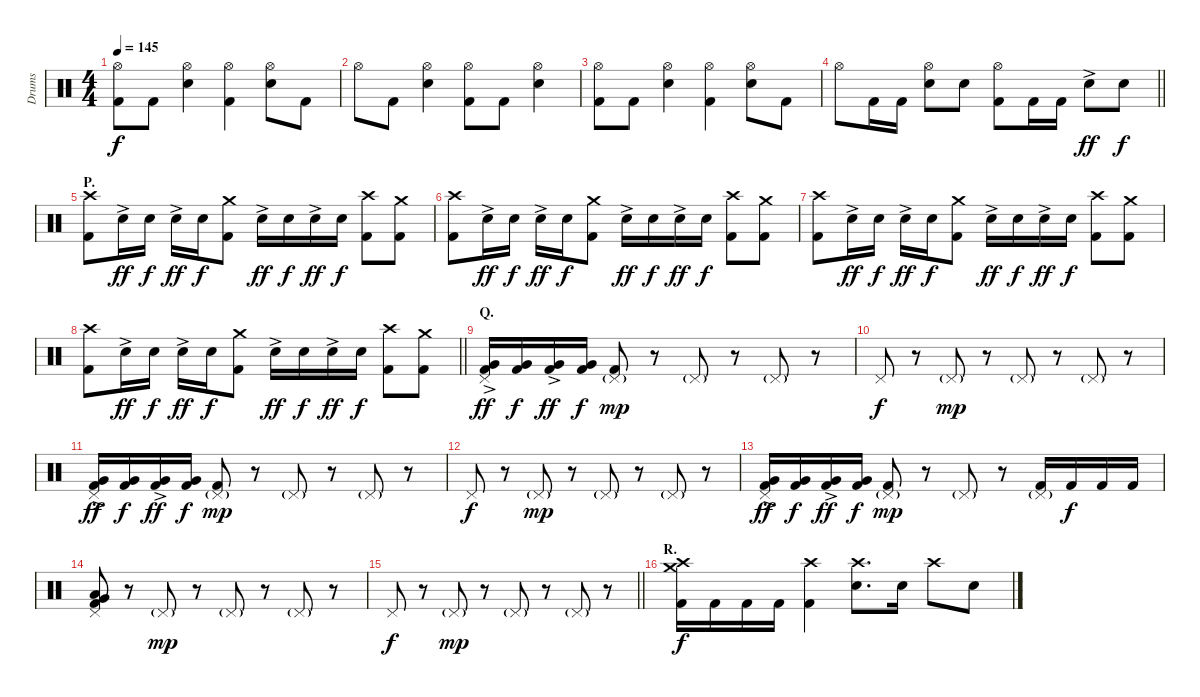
\track ("Drums" "Drums") {instrument percussion}
\staff {score}
\articulation defaults
\ts (4 4)
\tempo 145
\clef neutral
\ks c
("Hi-Hat (open)" "Kick (hit) 2").8{dy f} "Kick (hit) 2".8 ("Hi-Hat (open)" "Electric Snare (hit)").4 ("Hi-Hat (open)" "Kick (hit) 2").4 ("Hi-Hat (open)" "Electric Snare (hit)").8 "Kick (hit) 2".8 |
"Hi-Hat (open)".8 "Kick (hit) 2".8 ("Hi-Hat (open)" "Electric Snare (hit)").4 ("Hi-Hat (open)" "Kick (hit) 2").8 "Kick (hit) 2".8 ("Hi-Hat (open)" "Electric Snare (hit)").4 |
("Hi-Hat (open)" "Kick (hit) 2").8 "Kick (hit) 2".8 ("Hi-Hat (open)" "Electric Snare (hit)").4 ("Hi-Hat (open)" "Kick (hit) 2").4 ("Hi-Hat (open)" "Electric Snare (hit)").8 "Kick (hit) 2".8 |
\barLineRight lightlight "Hi-Hat (open)".8 "Kick (hit) 2".16 "Kick (hit) 2".16
("Hi-Hat (open)" "Electric Snare (hit)").8 "Electric Snare (hit)".8 ("Hi-Hat (open)" "Kick (hit) 2").8 "Kick (hit) 2".16 "Kick (hit) 2".16 "Electric Snare (hit)"{ac}.8{dy ff} "Electric Snare (hit)".8{dy f} |
\section ("" "P.")
("Crash high (hit)" "Kick (hit) 2").8 "Electric Snare (hit)"{ac}.16{dy ff} "Electric Snare (hit)".16{dy f} "Electric Snare (hit)"{ac}.16{dy ff} "Electric Snare (hit)".16{dy f} ("Crash medium (hit)" "Kick (hit) 2").8 "Electric Snare (hit)"{ac}.16{dy ff} "Electric Snare (hit)".16{dy f} "Electric Snare (hit)"{ac}.16{dy ff} "Electric Snare (hit)".16{dy f} ("Crash high (hit)" "Kick (hit) 2").8 ("Crash medium (hit)" "Kick (hit) 2").8 |
("Crash high (hit)" "Kick (hit) 2").8 "Electric Snare (hit)"{ac}.16{dy ff} "Electric Snare (hit)".16{dy f} "Electric Snare (hit)"{ac}.16{dy ff} "Electric Snare (hit)".16{dy f} ("Crash medium (hit)" "Kick (hit) 2").8 "Electric Snare (hit)"{ac}.16{dy ff} "Electric Snare (hit)".16{dy f} "Electric Snare (hit)"{ac}.16{dy ff} "Electric Snare (hit)".16{dy f} ("Crash high (hit)" "Kick (hit) 2").8 ("Crash medium (hit)" "Kick (hit) 2").8 |
("Crash high (hit)" "Kick (hit) 2").8 "Electric Snare (hit)"{ac}.16{dy ff} "Electric Snare (hit)".16{dy f} "Electric Snare (hit)"{ac}.16{dy ff} "Electric Snare (hit)".16{dy f} ("Crash medium (hit)" "Kick (hit) 2").8 "Electric Snare (hit)"{ac}.16{dy ff} "Electric Snare (hit)".16{dy f} "Electric Snare (hit)"{ac}.16{dy ff} "Electric Snare (hit)".16{dy f} ("Crash high (hit)" "Kick (hit) 2").8 ("Crash medium (hit)" "Kick (hit) 2").8 |
\barLineRight lightlight
("Crash high (hit)" "Kick (hit) 2").8 "Electric Snare (hit)"{ac}.16{dy ff} "Electric Snare (hit)".16{dy f} "Electric Snare (hit)"{ac}.16{dy ff} "Electric Snare (hit)".16{dy f} ("Crash medium (hit)" "Kick (hit) 2").8 "Electric Snare (hit)"{ac}.16{dy ff} "Electric Snare (hit)".16{dy f} "Electric Snare (hit)"{ac}.16{dy ff} "Electric Snare (hit)".16{dy f} ("Crash high (hit)" "Kick (hit) 2").8 ("Crash medium (hit)" "Kick (hit) 2").8 |
\section ("" "Q.")
("Pedal Hi-Hat (hit)" "Very Low Tom (hit)"{ac} "Kick (hit) 2").16{dy ff} ("Very Low Tom (hit)" "Kick (hit) 2").16{dy f} ("Very Low Tom (hit)"{ac} "Kick (hit) 2").16{dy ff} ("Very Low Tom (hit)" "Kick (hit) 2").16{dy f} ("Pedal Hi-Hat (hit)"{g} "Kick (hit) 2").8{dy mp} r.8 "Pedal Hi-Hat (hit)"{g}.8 r.8 "Pedal Hi-Hat (hit)"{g}.8 r.8 |
"Pedal Hi-Hat (hit)".8{dy f} r.8 "Pedal Hi-Hat (hit)"{g}.8{dy mp} r.8 "Pedal Hi-Hat (hit)"{g}.8 r.8 "Pedal Hi-Hat (hit)"{g}.8 r.8 |
("Pedal Hi-Hat (hit)" "Very Low Tom (hit)"{ac} "Kick (hit) 2").16{dy ff} ("Very Low Tom (hit)" "Kick (hit) 2").16{dy f} ("Very Low Tom (hit)"{ac} "Kick (hit) 2").16{dy ff} ("Very Low Tom (hit)" "Kick (hit) 2").16{dy f} ("Pedal Hi-Hat (hit)"{g} "Kick (hit) 2").8{dy mp} r.8 "Pedal Hi-Hat (hit)"{g}.8 r.8 "Pedal Hi-Hat (hit)"{g}.8 r.8 |
"Pedal Hi-Hat (hit)".8{dy f} r.8 "Pedal Hi-Hat (hit)"{g}.8{dy mp} r.8 "Pedal Hi-Hat (hit)"{g}.8 r.8 "Pedal Hi-Hat (hit)"{g}.8 r.8 |
("Pedal Hi-Hat (hit)" "Very Low Tom (hit)"{ac} "Kick (hit) 2").16{dy ff} ("Very Low Tom (hit)" "Kick (hit) 2").16{dy f} ("Very Low Tom (hit)"{ac} "Kick (hit) 2").16{dy ff} ("Very Low Tom (hit)" "Kick (hit) 2").16{dy f} ("Pedal Hi-Hat (hit)"{g} "Kick (hit) 2").8{dy mp} r.8 "Pedal Hi-Hat (hit)"{g}.8 r.8 ("Pedal Hi-Hat (hit)"{g} "Kick (hit) 2").16 "Kick (hit) 2".16{dy f} "Kick (hit) 2".16 "Kick (hit) 2".16 |
("Pedal Hi-Hat (hit)" "Very Low Tom (hit)" "Low Floor Tom (hit)" "Kick (hit) 2").8 r.8 "Pedal Hi-Hat (hit)"{g}.8{dy mp} r.8 "Pedal Hi-Hat (hit)"{g}.8 r.8 "Pedal Hi-Hat (hit)"{g}.8 r.8 |
\barLineRight lightlight "Pedal Hi-Hat (hit)".8{dy f}
r.8 "Pedal Hi-Hat (hit)"{g}.8{dy mp} r.8 "Pedal Hi-Hat (hit)"{g}.8 r.8 "Pedal Hi-Hat (hit)"{g}.8 r.8 |
\section ("" "R.")
("Crash medium (hit)" "Crash high (hit)" "Kick (hit) 2").16{dy f} "Kick (hit) 2".16 "Kick (hit) 2".16 "Kick (hit) 2".16 ("Crash high (hit)" "Kick (hit) 2").4 ("Crash high (hit)" "Electric Snare (hit)").8{d} "Electric Snare (hit)".16 "Crash high (hit)".8 "Electric Snare (hit)".8
